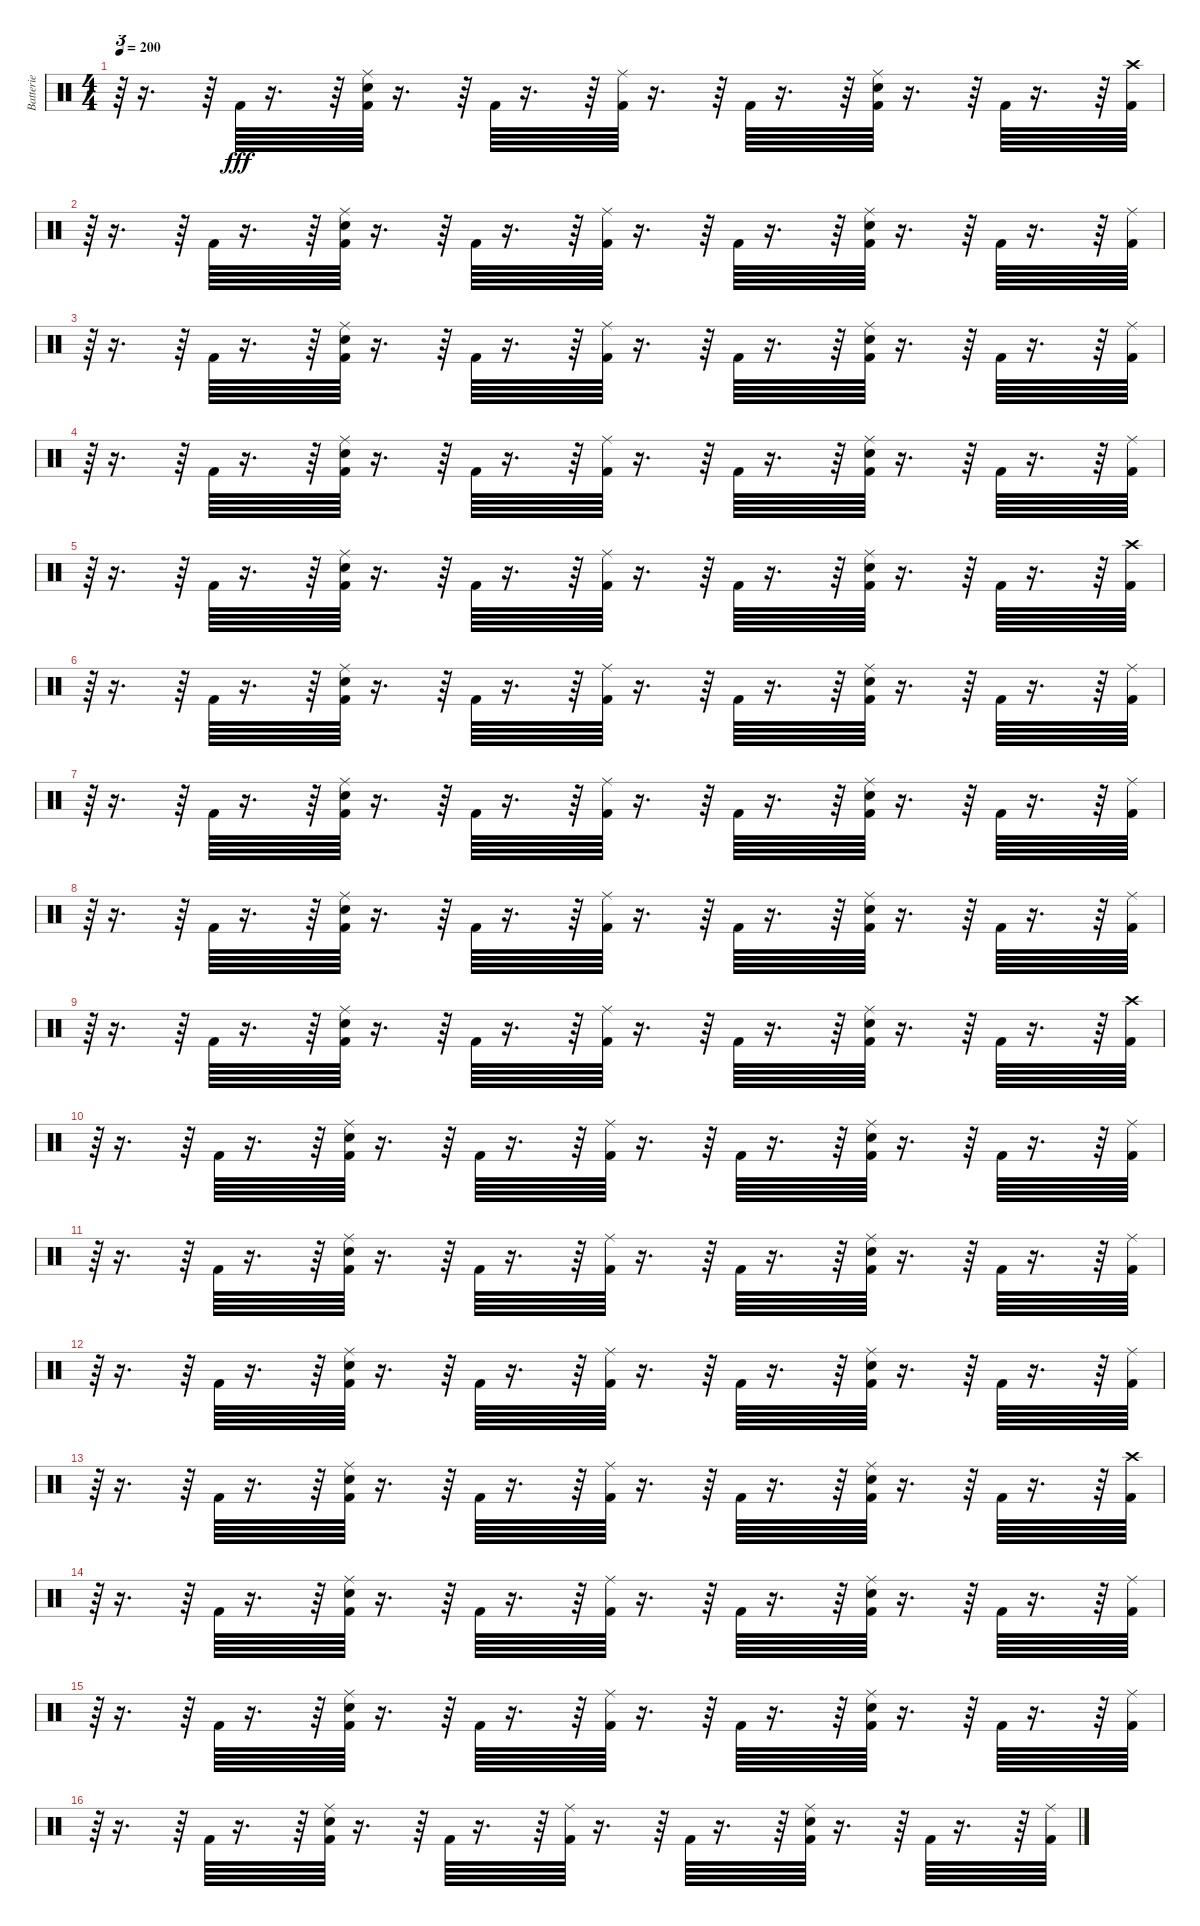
\track ("Batterie" "Batterie") {instrument percussion}
\staff {score}
\articulation defaults
\ts (4 4)
\tempo 200
\clef neutral
\ks c
r.64{tu (3 2) dy fff} r.16{d} r.64 "Kick (hit) 2".64 r.16{d} r.64 ("Kick (hit) 2" "Snare (hit) 2" "Ride (middle)").64 r.16{d} r.64 "Kick (hit) 2".64 r.16{d} r.64 ("Kick (hit) 2" "Ride (middle)").64 r.16{d} r.64 "Kick (hit) 2".64 r.16{d} r.64 ("Kick (hit) 2" "Snare (hit) 2" "Ride (middle)").64 r.16{d} r.64 "Kick (hit) 2".64 r.16{d} r.64 ("Kick (hit) 2" "Crash high (hit)").64 |
r.64{tu (3 2)} r.16{d} r.64 "Kick (hit) 2".64 r.16{d} r.64 ("Kick (hit) 2" "Snare (hit) 2" "Ride (middle)").64 r.16{d} r.64 "Kick (hit) 2".64 r.16{d} r.64 ("Kick (hit) 2" "Ride (middle)").64 r.16{d} r.64 "Kick (hit) 2".64 r.16{d} r.64 ("Kick (hit) 2" "Snare (hit) 2" "Ride (middle)").64 r.16{d} r.64 "Kick (hit) 2".64 r.16{d} r.64 ("Kick (hit) 2" "Ride (middle)").64 |
r.64{tu (3 2)} r.16{d} r.64 "Kick (hit) 2".64 r.16{d} r.64 ("Kick (hit) 2" "Snare (hit) 2" "Ride (middle)").64 r.16{d} r.64 "Kick (hit) 2".64 r.16{d} r.64 ("Kick (hit) 2" "Ride (middle)").64 r.16{d} r.64 "Kick (hit) 2".64 r.16{d} r.64 ("Kick (hit) 2" "Snare (hit) 2" "Ride (middle)").64 r.16{d} r.64 "Kick (hit) 2".64 r.16{d} r.64 ("Kick (hit) 2" "Ride (middle)").64 |
r.64{tu (3 2)} r.16{d} r.64 "Kick (hit) 2".64 r.16{d} r.64 ("Kick (hit) 2" "Snare (hit) 2" "Ride (middle)").64 r.16{d} r.64 "Kick (hit) 2".64 r.16{d} r.64 ("Kick (hit) 2" "Ride (middle)").64 r.16{d} r.64 "Kick (hit) 2".64 r.16{d} r.64 ("Kick (hit) 2" "Snare (hit) 2" "Ride (middle)").64 r.16{d} r.64 "Kick (hit) 2".64 r.16{d} r.64 ("Kick (hit) 2" "Ride (middle)").64 |
r.64{tu (3 2)} r.16{d} r.64 "Kick (hit) 2".64 r.16{d} r.64 ("Kick (hit) 2" "Snare (hit) 2" "Ride (middle)").64 r.16{d} r.64 "Kick (hit) 2".64 r.16{d} r.64 ("Kick (hit) 2" "Ride (middle)").64 r.16{d} r.64 "Kick (hit) 2".64 r.16{d} r.64 ("Kick (hit) 2" "Snare (hit) 2" "Ride (middle)").64 r.16{d} r.64 "Kick (hit) 2".64 r.16{d} r.64 ("Kick (hit) 2" "Crash high (hit)").64 |
r.64{tu (3 2)} r.16{d} r.64 "Kick (hit) 2".64 r.16{d} r.64 ("Kick (hit) 2" "Snare (hit) 2" "Ride (middle)").64 r.16{d} r.64 "Kick (hit) 2".64 r.16{d} r.64 ("Kick (hit) 2" "Ride (middle)").64 r.16{d} r.64 "Kick (hit) 2".64 r.16{d} r.64 ("Kick (hit) 2" "Snare (hit) 2" "Ride (middle)").64 r.16{d} r.64 "Kick (hit) 2".64 r.16{d} r.64 ("Kick (hit) 2" "Ride (middle)").64 |
r.64{tu (3 2)} r.16{d} r.64 "Kick (hit) 2".64 r.16{d} r.64 ("Kick (hit) 2" "Snare (hit) 2" "Ride (middle)").64 r.16{d} r.64 "Kick (hit) 2".64 r.16{d} r.64 ("Kick (hit) 2" "Ride (middle)").64 r.16{d} r.64 "Kick (hit) 2".64 r.16{d} r.64 ("Kick (hit) 2" "Snare (hit) 2" "Ride (middle)").64 r.16{d} r.64 "Kick (hit) 2".64 r.16{d} r.64 ("Kick (hit) 2" "Ride (middle)").64 |
r.64{tu (3 2)} r.16{d} r.64 "Kick (hit) 2".64 r.16{d} r.64 ("Kick (hit) 2" "Snare (hit) 2" "Ride (middle)").64 r.16{d} r.64 "Kick (hit) 2".64 r.16{d} r.64 ("Kick (hit) 2" "Ride (middle)").64 r.16{d} r.64 "Kick (hit) 2".64 r.16{d} r.64 ("Kick (hit) 2" "Snare (hit) 2" "Ride (middle)").64 r.16{d} r.64 "Kick (hit) 2".64 r.16{d} r.64 ("Kick (hit) 2" "Ride (middle)").64 |
r.64{tu (3 2)} r.16{d} r.64 "Kick (hit) 2".64 r.16{d} r.64 ("Kick (hit) 2" "Snare (hit) 2" "Ride (middle)").64 r.16{d} r.64 "Kick (hit) 2".64 r.16{d} r.64 ("Kick (hit) 2" "Ride (middle)").64 r.16{d} r.64 "Kick (hit) 2".64 r.16{d} r.64 ("Kick (hit) 2" "Snare (hit) 2" "Ride (middle)").64 r.16{d} r.64 "Kick (hit) 2".64 r.16{d} r.64 ("Kick (hit) 2" "Crash high (hit)").64 |
r.64{tu (3 2)} r.16{d} r.64 "Kick (hit) 2".64 r.16{d} r.64 ("Kick (hit) 2" "Snare (hit) 2" "Ride (middle)").64 r.16{d} r.64 "Kick (hit) 2".64 r.16{d} r.64 ("Kick (hit) 2" "Ride (middle)").64 r.16{d} r.64 "Kick (hit) 2".64 r.16{d} r.64 ("Kick (hit) 2" "Snare (hit) 2" "Ride (middle)").64 r.16{d} r.64 "Kick (hit) 2".64 r.16{d} r.64 ("Kick (hit) 2" "Ride (middle)").64 |
r.64{tu (3 2)} r.16{d} r.64 "Kick (hit) 2".64 r.16{d} r.64 ("Kick (hit) 2" "Snare (hit) 2" "Ride (middle)").64 r.16{d} r.64 "Kick (hit) 2".64 r.16{d} r.64 ("Kick (hit) 2" "Ride (middle)").64 r.16{d} r.64 "Kick (hit) 2".64 r.16{d} r.64 ("Kick (hit) 2" "Snare (hit) 2" "Ride (middle)").64 r.16{d} r.64 "Kick (hit) 2".64 r.16{d} r.64 ("Kick (hit) 2" "Ride (middle)").64 |
r.64{tu (3 2)} r.16{d} r.64 "Kick (hit) 2".64 r.16{d} r.64 ("Kick (hit) 2" "Snare (hit) 2" "Ride (middle)").64 r.16{d} r.64 "Kick (hit) 2".64 r.16{d} r.64 ("Kick (hit) 2" "Ride (middle)").64 r.16{d} r.64 "Kick (hit) 2".64 r.16{d} r.64 ("Kick (hit) 2" "Snare (hit) 2" "Ride (middle)").64 r.16{d} r.64 "Kick (hit) 2".64 r.16{d} r.64 ("Kick (hit) 2" "Ride (middle)").64 |
r.64{tu (3 2)} r.16{d} r.64 "Kick (hit) 2".64 r.16{d} r.64 ("Kick (hit) 2" "Snare (hit) 2" "Ride (middle)").64 r.16{d} r.64 "Kick (hit) 2".64 r.16{d} r.64 ("Kick (hit) 2" "Ride (middle)").64 r.16{d} r.64 "Kick (hit) 2".64 r.16{d} r.64 ("Kick (hit) 2" "Snare (hit) 2" "Ride (middle)").64 r.16{d} r.64 "Kick (hit) 2".64 r.16{d} r.64 ("Kick (hit) 2" "Crash high (hit)").64 |
r.64{tu (3 2)} r.16{d} r.64 "Kick (hit) 2".64 r.16{d} r.64 ("Kick (hit) 2" "Snare (hit) 2" "Ride (middle)").64 r.16{d} r.64 "Kick (hit) 2".64 r.16{d} r.64 ("Kick (hit) 2" "Ride (middle)").64 r.16{d} r.64 "Kick (hit) 2".64 r.16{d} r.64 ("Kick (hit) 2" "Snare (hit) 2" "Ride (middle)").64 r.16{d} r.64 "Kick (hit) 2".64 r.16{d} r.64 ("Kick (hit) 2" "Ride (middle)").64 |
r.64{tu (3 2)} r.16{d} r.64 "Kick (hit) 2".64 r.16{d} r.64 ("Kick (hit) 2" "Snare (hit) 2" "Ride (middle)").64 r.16{d} r.64 "Kick (hit) 2".64 r.16{d} r.64 ("Kick (hit) 2" "Ride (middle)").64 r.16{d} r.64 "Kick (hit) 2".64 r.16{d} r.64 ("Kick (hit) 2" "Snare (hit) 2" "Ride (middle)").64 r.16{d} r.64 "Kick (hit) 2".64 r.16{d} r.64 ("Kick (hit) 2" "Ride (middle)").64 |
r.64{tu (3 2)} r.16{d} r.64 "Kick (hit) 2".64 r.16{d} r.64 ("Kick (hit) 2" "Snare (hit) 2" "Ride (middle)").64 r.16{d} r.64 "Kick (hit) 2".64 r.16{d} r.64 ("Kick (hit) 2" "Ride (middle)").64 r.16{d} r.64 "Kick (hit) 2".64 r.16{d} r.64 ("Kick (hit) 2" "Snare (hit) 2" "Ride (middle)").64 r.16{d} r.64 "Kick (hit) 2".64 r.16{d} r.64 ("Kick (hit) 2" "Ride (middle)").64
